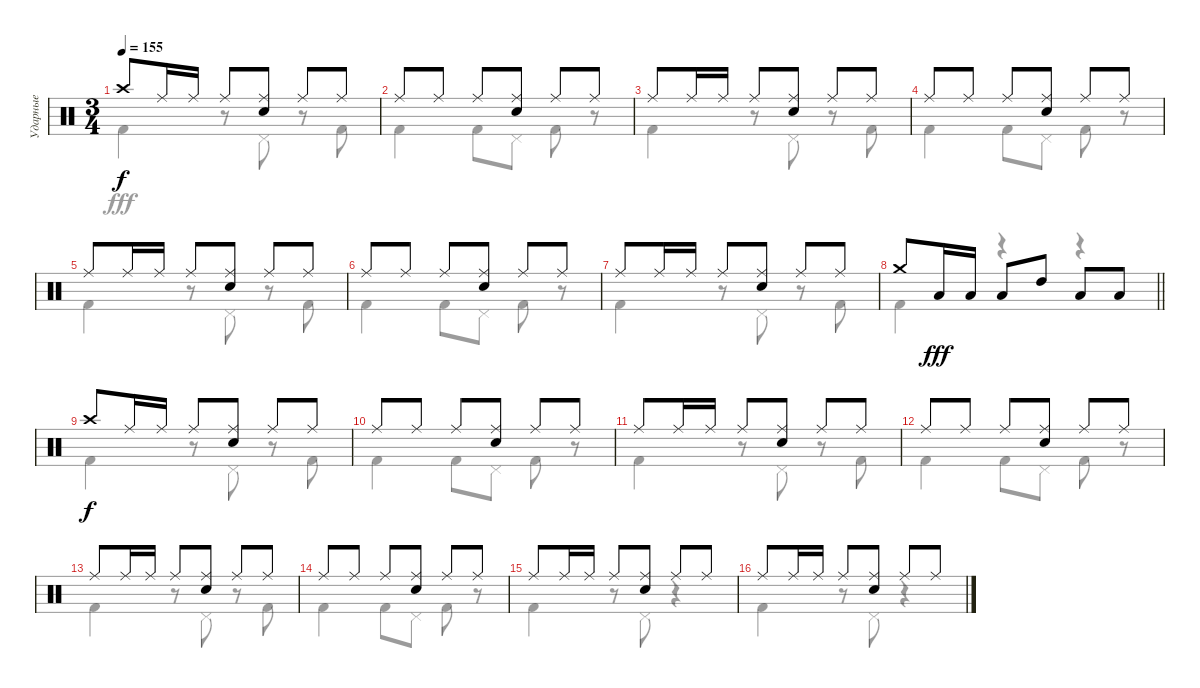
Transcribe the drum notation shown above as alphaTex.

\track ("Ударные" "Ударные") {instrument percussion}
\staff {score}
\articulation defaults
\voice
\ts (3 4)
\tempo 155
\clef neutral
\ks c "Crash high (hit)".8{dy f} "Ride (middle)".16 "Ride (middle)".16 "Ride (middle)".8
("Ride (middle)" "Electric Snare (hit)").8 "Ride (middle)".8 "Ride (middle)".8 |
"Ride (middle)".8 "Ride (middle)".8 "Ride (middle)".8 ("Ride (middle)" "Electric Snare (hit)").8 "Ride (middle)".8 "Ride (middle)".8 |
"Ride (middle)".8 "Ride (middle)".16 "Ride (middle)".16 "Ride (middle)".8 ("Ride (middle)" "Electric Snare (hit)").8 "Ride (middle)".8 "Ride (middle)".8 |
"Ride (middle)".8 "Ride (middle)".8 "Ride (middle)".8 ("Ride (middle)" "Electric Snare (hit)").8 "Ride (middle)".8 "Ride (middle)".8 |
"Ride (middle)".8 "Ride (middle)".16 "Ride (middle)".16 "Ride (middle)".8 ("Ride (middle)" "Electric Snare (hit)").8 "Ride (middle)".8 "Ride (middle)".8 |
"Ride (middle)".8 "Ride (middle)".8 "Ride (middle)".8 ("Ride (middle)" "Electric Snare (hit)").8 "Ride (middle)".8 "Ride (middle)".8 |
"Ride (middle)".8 "Ride (middle)".16 "Ride (middle)".16 "Ride (middle)".8 ("Ride (middle)" "Electric Snare (hit)").8 "Ride (middle)".8 "Ride (middle)".8 |
\barLineRight lightlight "Crash medium (hit)".8 "Low Floor Tom (hit)".16{dy fff} "Low Floor Tom (hit)".16 "Low Floor Tom (hit)".8 "High Tom (hit)".8 "Low Tom (hit)".8 "Low Floor Tom (hit)".8
|
"Crash high (hit)".8{dy f} "Ride (middle)".16 "Ride (middle)".16 "Ride (middle)".8 ("Ride (middle)" "Electric Snare (hit)").8 "Ride (middle)".8 "Ride (middle)".8 |
"Ride (middle)".8 "Ride (middle)".8 "Ride (middle)".8 ("Ride (middle)" "Electric Snare (hit)").8 "Ride (middle)".8 "Ride (middle)".8 |
"Ride (middle)".8 "Ride (middle)".16 "Ride (middle)".16 "Ride (middle)".8 ("Ride (middle)" "Electric Snare (hit)").8 "Ride (middle)".8 "Ride (middle)".8 |
"Ride (middle)".8 "Ride (middle)".8 "Ride (middle)".8 ("Ride (middle)" "Electric Snare (hit)").8 "Ride (middle)".8 "Ride (middle)".8 |
"Ride (middle)".8 "Ride (middle)".16 "Ride (middle)".16 "Ride (middle)".8 ("Ride (middle)" "Electric Snare (hit)").8 "Ride (middle)".8 "Ride (middle)".8 |
"Ride (middle)".8 "Ride (middle)".8 "Ride (middle)".8 ("Ride (middle)" "Electric Snare (hit)").8 "Ride (middle)".8 "Ride (middle)".8 |
"Ride (middle)".8 "Ride (middle)".16 "Ride (middle)".16 "Ride (middle)".8 ("Ride (middle)" "Electric Snare (hit)").8 "Ride (middle)".8 "Ride (middle)".8 |
"Ride (middle)".8 "Ride (middle)".16 "Ride (middle)".16 "Ride (middle)".8 ("Ride (middle)" "Electric Snare (hit)").8 "Ride (middle)".8 "Ride (middle)".8
\voice
\clef neutral
\ottava regular
\simile none
\ks c "Kick (hit) 2".4{dy fff}
r.8 "Pedal Hi-Hat (hit)".8 r.8 "Kick (hit) 2".8 |
"Kick (hit) 2".4 "Kick (hit) 2".8 "Pedal Hi-Hat (hit)".8 "Kick (hit) 2".8 r.8 |
"Kick (hit) 2".4 r.8 "Pedal Hi-Hat (hit)".8 r.8 "Kick (hit) 2".8 |
"Kick (hit) 2".4 "Kick (hit) 2".8 "Pedal Hi-Hat (hit)".8 "Kick (hit) 2".8 r.8 |
"Kick (hit) 2".4 r.8 "Pedal Hi-Hat (hit)".8 r.8 "Kick (hit) 2".8 |
"Kick (hit) 2".4 "Kick (hit) 2".8 "Pedal Hi-Hat (hit)".8 "Kick (hit) 2".8 r.8 |
"Kick (hit) 2".4 r.8 "Pedal Hi-Hat (hit)".8 r.8 "Kick (hit) 2".8 |
\barLineRight lightlight "Kick (hit) 2".4
r.4 r.4 |
"Kick (hit) 2".4 r.8 "Pedal Hi-Hat (hit)".8 r.8 "Kick (hit) 2".8 |
"Kick (hit) 2".4 "Kick (hit) 2".8 "Pedal Hi-Hat (hit)".8 "Kick (hit) 2".8 r.8 |
"Kick (hit) 2".4 r.8 "Pedal Hi-Hat (hit)".8 r.8 "Kick (hit) 2".8 |
"Kick (hit) 2".4 "Kick (hit) 2".8 "Pedal Hi-Hat (hit)".8 "Kick (hit) 2".8 r.8 |
"Kick (hit) 2".4 r.8 "Pedal Hi-Hat (hit)".8 r.8 "Kick (hit) 2".8 |
"Kick (hit) 2".4 "Kick (hit) 2".8 "Pedal Hi-Hat (hit)".8 "Kick (hit) 2".8 r.8 |
"Kick (hit) 2".4 r.8 "Pedal Hi-Hat (hit)".8 r.4 |
"Kick (hit) 2".4 r.8 "Pedal Hi-Hat (hit)".8 r.4
